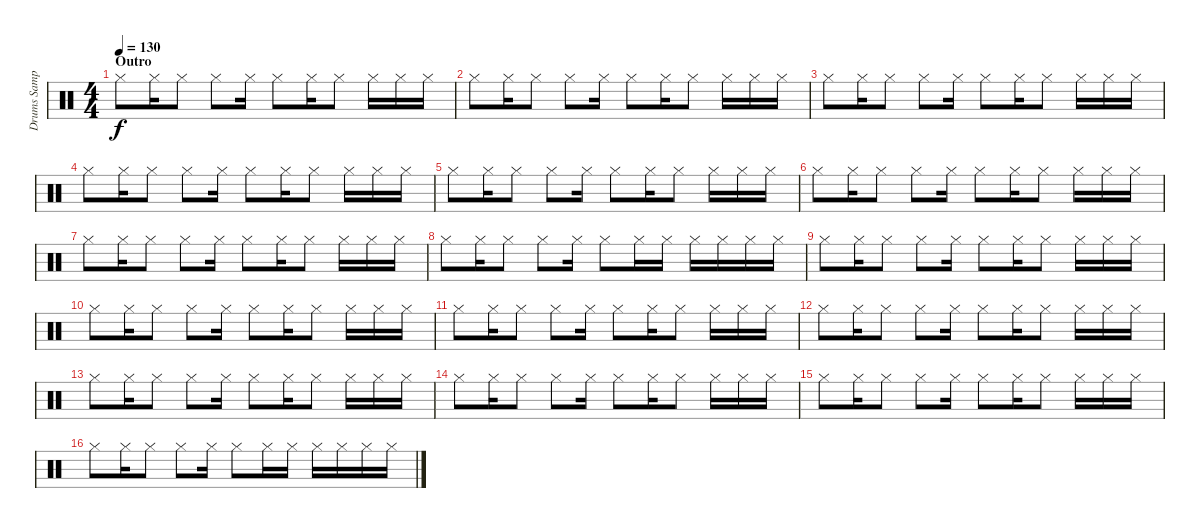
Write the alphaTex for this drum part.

\track ("Drums Sample" "Drums Samp") {instrument percussion}
\staff {score}
\articulation defaults
\ts (4 4)
\section ("" "Outro")
\tempo 130
\clef neutral
\ks c "Hi-Hat (closed)".8{dy f} "Hi-Hat (closed)".16 "Hi-Hat (closed)".8 "Hi-Hat (closed)".8 "Hi-Hat (closed)".16 "Hi-Hat (closed)".8 "Hi-Hat (closed)".16 "Hi-Hat (closed)".8 "Hi-Hat (closed)".16 "Hi-Hat (closed)".16 "Hi-Hat (closed)".16
|
"Hi-Hat (closed)".8 "Hi-Hat (closed)".16 "Hi-Hat (closed)".8 "Hi-Hat (closed)".8 "Hi-Hat (closed)".16 "Hi-Hat (closed)".8 "Hi-Hat (closed)".16 "Hi-Hat (closed)".8 "Hi-Hat (closed)".16 "Hi-Hat (closed)".16 "Hi-Hat (closed)".16 |
"Hi-Hat (closed)".8 "Hi-Hat (closed)".16 "Hi-Hat (closed)".8 "Hi-Hat (closed)".8 "Hi-Hat (closed)".16 "Hi-Hat (closed)".8 "Hi-Hat (closed)".16 "Hi-Hat (closed)".8 "Hi-Hat (closed)".16 "Hi-Hat (closed)".16 "Hi-Hat (closed)".16 |
"Hi-Hat (closed)".8 "Hi-Hat (closed)".16 "Hi-Hat (closed)".8 "Hi-Hat (closed)".8 "Hi-Hat (closed)".16 "Hi-Hat (closed)".8 "Hi-Hat (closed)".16 "Hi-Hat (closed)".8 "Hi-Hat (closed)".16 "Hi-Hat (closed)".16 "Hi-Hat (closed)".16 |
"Hi-Hat (closed)".8 "Hi-Hat (closed)".16 "Hi-Hat (closed)".8 "Hi-Hat (closed)".8 "Hi-Hat (closed)".16 "Hi-Hat (closed)".8 "Hi-Hat (closed)".16 "Hi-Hat (closed)".8 "Hi-Hat (closed)".16 "Hi-Hat (closed)".16 "Hi-Hat (closed)".16 |
"Hi-Hat (closed)".8 "Hi-Hat (closed)".16 "Hi-Hat (closed)".8 "Hi-Hat (closed)".8 "Hi-Hat (closed)".16 "Hi-Hat (closed)".8 "Hi-Hat (closed)".16 "Hi-Hat (closed)".8 "Hi-Hat (closed)".16 "Hi-Hat (closed)".16 "Hi-Hat (closed)".16 |
"Hi-Hat (closed)".8 "Hi-Hat (closed)".16 "Hi-Hat (closed)".8 "Hi-Hat (closed)".8 "Hi-Hat (closed)".16 "Hi-Hat (closed)".8 "Hi-Hat (closed)".16 "Hi-Hat (closed)".8 "Hi-Hat (closed)".16 "Hi-Hat (closed)".16 "Hi-Hat (closed)".16 |
"Hi-Hat (closed)".8 "Hi-Hat (closed)".16 "Hi-Hat (closed)".8 "Hi-Hat (closed)".8 "Hi-Hat (closed)".16 "Hi-Hat (closed)".8 "Hi-Hat (closed)".16 "Hi-Hat (closed)".16 "Hi-Hat (closed)".16 "Hi-Hat (closed)".16 "Hi-Hat (closed)".16 "Hi-Hat (closed)".16 |
"Hi-Hat (closed)".8 "Hi-Hat (closed)".16 "Hi-Hat (closed)".8 "Hi-Hat (closed)".8 "Hi-Hat (closed)".16 "Hi-Hat (closed)".8 "Hi-Hat (closed)".16 "Hi-Hat (closed)".8 "Hi-Hat (closed)".16 "Hi-Hat (closed)".16 "Hi-Hat (closed)".16 |
"Hi-Hat (closed)".8 "Hi-Hat (closed)".16 "Hi-Hat (closed)".8 "Hi-Hat (closed)".8 "Hi-Hat (closed)".16 "Hi-Hat (closed)".8 "Hi-Hat (closed)".16 "Hi-Hat (closed)".8 "Hi-Hat (closed)".16 "Hi-Hat (closed)".16 "Hi-Hat (closed)".16 |
"Hi-Hat (closed)".8 "Hi-Hat (closed)".16 "Hi-Hat (closed)".8 "Hi-Hat (closed)".8 "Hi-Hat (closed)".16 "Hi-Hat (closed)".8 "Hi-Hat (closed)".16 "Hi-Hat (closed)".8 "Hi-Hat (closed)".16 "Hi-Hat (closed)".16 "Hi-Hat (closed)".16 |
"Hi-Hat (closed)".8 "Hi-Hat (closed)".16 "Hi-Hat (closed)".8 "Hi-Hat (closed)".8 "Hi-Hat (closed)".16 "Hi-Hat (closed)".8 "Hi-Hat (closed)".16 "Hi-Hat (closed)".8 "Hi-Hat (closed)".16 "Hi-Hat (closed)".16 "Hi-Hat (closed)".16 |
"Hi-Hat (closed)".8 "Hi-Hat (closed)".16 "Hi-Hat (closed)".8 "Hi-Hat (closed)".8 "Hi-Hat (closed)".16 "Hi-Hat (closed)".8 "Hi-Hat (closed)".16 "Hi-Hat (closed)".8 "Hi-Hat (closed)".16 "Hi-Hat (closed)".16 "Hi-Hat (closed)".16 |
"Hi-Hat (closed)".8 "Hi-Hat (closed)".16 "Hi-Hat (closed)".8 "Hi-Hat (closed)".8 "Hi-Hat (closed)".16 "Hi-Hat (closed)".8 "Hi-Hat (closed)".16 "Hi-Hat (closed)".8 "Hi-Hat (closed)".16 "Hi-Hat (closed)".16 "Hi-Hat (closed)".16 |
"Hi-Hat (closed)".8 "Hi-Hat (closed)".16 "Hi-Hat (closed)".8 "Hi-Hat (closed)".8 "Hi-Hat (closed)".16 "Hi-Hat (closed)".8 "Hi-Hat (closed)".16 "Hi-Hat (closed)".8 "Hi-Hat (closed)".16 "Hi-Hat (closed)".16 "Hi-Hat (closed)".16 |
"Hi-Hat (closed)".8 "Hi-Hat (closed)".16 "Hi-Hat (closed)".8 "Hi-Hat (closed)".8 "Hi-Hat (closed)".16 "Hi-Hat (closed)".8 "Hi-Hat (closed)".16 "Hi-Hat (closed)".16 "Hi-Hat (closed)".16 "Hi-Hat (closed)".16 "Hi-Hat (closed)".16 "Hi-Hat (closed)".16
